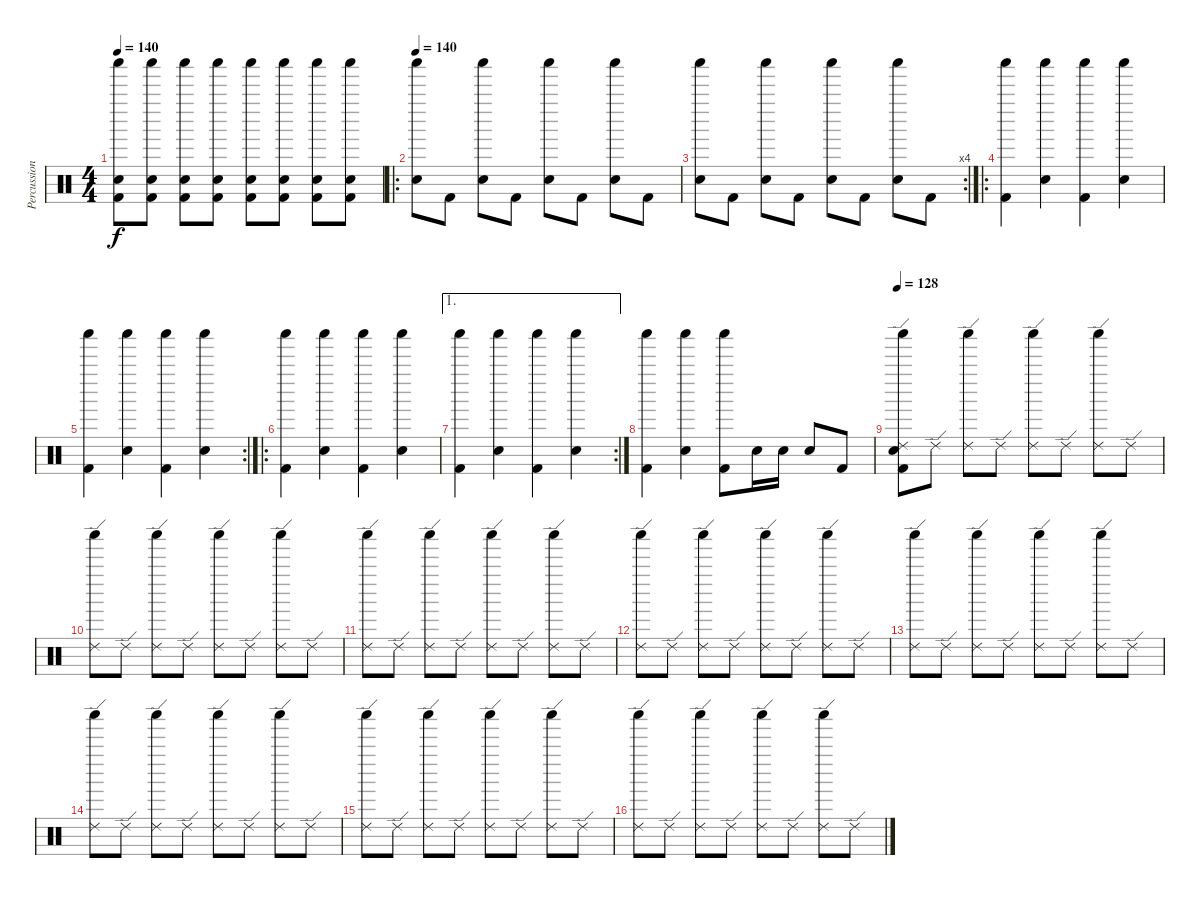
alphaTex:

\track ("Percussions" "Percussion") {instrument percussion}
\staff {score}
\articulation defaults
\ts (4 4)
\tempo 140
\clef neutral
\ks c
("Snare (hit) 2" "Kick (hit) 2" "Shaker (hit)").8{dy f} ("Snare (hit) 2" "Kick (hit) 2" "Shaker (hit)").8 ("Snare (hit) 2" "Kick (hit) 2" "Shaker (hit)").8 ("Snare (hit) 2" "Kick (hit) 2" "Shaker (hit)").8 ("Snare (hit) 2" "Kick (hit) 2" "Shaker (hit)").8 ("Snare (hit) 2" "Kick (hit) 2" "Shaker (hit)").8 ("Snare (hit) 2" "Kick (hit) 2" "Shaker (hit)").8 ("Snare (hit) 2" "Kick (hit) 2" "Shaker (hit)").8 |
\ro
\tempo 140
("Snare (hit) 2" "Shaker (hit)").8 "Kick (hit) 2".8 ("Snare (hit) 2" "Shaker (hit)").8 "Kick (hit) 2".8 ("Snare (hit) 2" "Shaker (hit)").8 "Kick (hit) 2".8 ("Snare (hit) 2" "Shaker (hit)").8 "Kick (hit) 2".8 |
\rc 4
("Snare (hit) 2" "Shaker (hit)").8 "Kick (hit) 2".8 ("Snare (hit) 2" "Shaker (hit)").8 "Kick (hit) 2".8 ("Snare (hit) 2" "Shaker (hit)").8 "Kick (hit) 2".8 ("Snare (hit) 2" "Shaker (hit)").8 "Kick (hit) 2".8 |
\ro
("Kick (hit) 2" "Shaker (hit)").4 ("Snare (hit) 2" "Shaker (hit)").4 ("Kick (hit) 2" "Shaker (hit)").4 ("Snare (hit) 2" "Shaker (hit)").4 |
\rc 2
("Kick (hit) 2" "Shaker (hit)").4 ("Snare (hit) 2" "Shaker (hit)").4 ("Kick (hit) 2" "Shaker (hit)").4 ("Snare (hit) 2" "Shaker (hit)").4 |
\ro
("Kick (hit) 2" "Shaker (hit)").4 ("Snare (hit) 2" "Shaker (hit)").4 ("Kick (hit) 2" "Shaker (hit)").4 ("Snare (hit) 2" "Shaker (hit)").4 |
\ae 1
\rc 2
("Kick (hit) 2" "Shaker (hit)").4 ("Snare (hit) 2" "Shaker (hit)").4 ("Kick (hit) 2" "Shaker (hit)").4 ("Snare (hit) 2" "Shaker (hit)").4 |
("Kick (hit) 2" "Shaker (hit)").4 ("Snare (hit) 2" "Shaker (hit)").4 ("Kick (hit) 2" "Shaker (hit)").8 "Snare (hit) 2".16 "Snare (hit) 2".16 "Snare (hit) 2".8 "Kick (hit) 2".8 |
\tempo 128
("Snare (hit) 2" "Kick (hit) 2" "Shaker (hit)" "Ride (edge) 2").8 "Ride (edge) 2".8{volume 8} ("Shaker (hit)" "Ride (edge) 2").8 "Ride (edge) 2".8 ("Shaker (hit)" "Ride (edge) 2").8 "Ride (edge) 2".8 ("Shaker (hit)" "Ride (edge) 2").8 "Ride (edge) 2".8 |
("Shaker (hit)" "Ride (edge) 2").8 "Ride (edge) 2".8 ("Shaker (hit)" "Ride (edge) 2").8 "Ride (edge) 2".8 ("Shaker (hit)" "Ride (edge) 2").8 "Ride (edge) 2".8 ("Shaker (hit)" "Ride (edge) 2").8 "Ride (edge) 2".8 |
("Shaker (hit)" "Ride (edge) 2").8 "Ride (edge) 2".8 ("Shaker (hit)" "Ride (edge) 2").8 "Ride (edge) 2".8 ("Shaker (hit)" "Ride (edge) 2").8 "Ride (edge) 2".8 ("Shaker (hit)" "Ride (edge) 2").8 "Ride (edge) 2".8 |
("Shaker (hit)" "Ride (edge) 2").8 "Ride (edge) 2".8 ("Shaker (hit)" "Ride (edge) 2").8 "Ride (edge) 2".8 ("Shaker (hit)" "Ride (edge) 2").8 "Ride (edge) 2".8 ("Shaker (hit)" "Ride (edge) 2").8 "Ride (edge) 2".8 |
("Shaker (hit)" "Ride (edge) 2").8 "Ride (edge) 2".8 ("Shaker (hit)" "Ride (edge) 2").8 "Ride (edge) 2".8 ("Shaker (hit)" "Ride (edge) 2").8 "Ride (edge) 2".8 ("Shaker (hit)" "Ride (edge) 2").8 "Ride (edge) 2".8 |
("Shaker (hit)" "Ride (edge) 2").8 "Ride (edge) 2".8 ("Shaker (hit)" "Ride (edge) 2").8 "Ride (edge) 2".8 ("Shaker (hit)" "Ride (edge) 2").8 "Ride (edge) 2".8 ("Shaker (hit)" "Ride (edge) 2").8 "Ride (edge) 2".8 |
("Shaker (hit)" "Ride (edge) 2").8 "Ride (edge) 2".8 ("Shaker (hit)" "Ride (edge) 2").8 "Ride (edge) 2".8 ("Shaker (hit)" "Ride (edge) 2").8 "Ride (edge) 2".8 ("Shaker (hit)" "Ride (edge) 2").8 "Ride (edge) 2".8 |
("Shaker (hit)" "Ride (edge) 2").8 "Ride (edge) 2".8 ("Shaker (hit)" "Ride (edge) 2").8 "Ride (edge) 2".8 ("Shaker (hit)" "Ride (edge) 2").8 "Ride (edge) 2".8 ("Shaker (hit)" "Ride (edge) 2").8 "Ride (edge) 2".8
